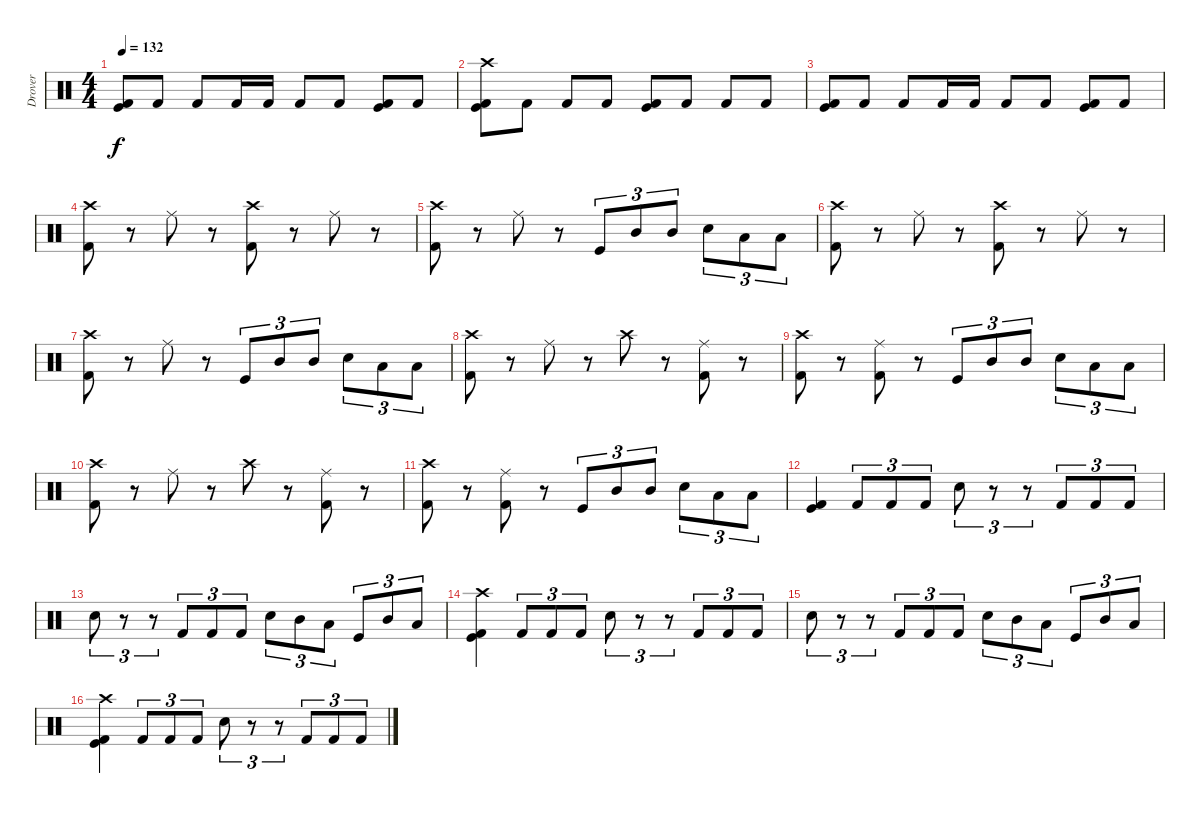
\track ("Drover" "Drover") {instrument percussion}
\staff {score}
\articulation defaults
\ts (4 4)
\tempo 132
\clef neutral
\ks c
("Kick (hit) 2" "Kick (hit)").8{dy f} "Kick (hit) 2".8 "Kick (hit) 2".8 "Kick (hit) 2".16 "Kick (hit) 2".16 "Kick (hit) 2".8 "Kick (hit) 2".8 ("Kick (hit)" "Kick (hit) 2").8 "Kick (hit) 2".8 |
("Crash high (hit)" "Kick (hit) 2" "Kick (hit)").8 "Kick (hit) 2".8 "Kick (hit) 2".8 "Kick (hit) 2".8 ("Kick (hit) 2" "Kick (hit)").8 "Kick (hit) 2".8 "Kick (hit) 2".8 "Kick (hit) 2".8 |
("Kick (hit) 2" "Kick (hit)").8 "Kick (hit) 2".8 "Kick (hit) 2".8 "Kick (hit) 2".16 "Kick (hit) 2".16 "Kick (hit) 2".8 "Kick (hit) 2".8 ("Kick (hit)" "Kick (hit) 2").8 "Kick (hit) 2".8 |
("Crash high (hit)" "Kick (hit) 2").8 r.8 "Ride (middle)".8 r.8 ("Crash high (hit)" "Kick (hit) 2").8 r.8 "Ride (middle)".8 r.8 |
("Crash high (hit)" "Kick (hit) 2").8 r.8 "Ride (middle)".8 r.8 "Kick (hit)".8{tu (3 2)} "Mid Tom (hit)".8{tu (3 2)} "Mid Tom (hit)".8{tu (3 2)} "Snare (hit) 2".8{tu (3 2)} "Low Floor Tom (hit)".8{tu (3 2)} "Low Floor Tom (hit)".8{tu (3 2)} |
("Crash high (hit)" "Kick (hit) 2").8 r.8 "Ride (middle)".8 r.8 ("Crash high (hit)" "Kick (hit) 2").8 r.8 "Ride (middle)".8 r.8 |
("Crash high (hit)" "Kick (hit) 2").8 r.8 "Ride (middle)".8 r.8 "Kick (hit)".8{tu (3 2)} "Mid Tom (hit)".8{tu (3 2)} "Mid Tom (hit)".8{tu (3 2)} "Snare (hit) 2".8{tu (3 2)} "Low Floor Tom (hit)".8{tu (3 2)} "Low Floor Tom (hit)".8{tu (3 2)} |
("Crash high (hit)" "Kick (hit) 2").8 r.8 "Ride (middle)".8 r.8 "Crash high (hit)".8 r.8 ("Ride (middle)" "Kick (hit) 2").8 r.8 |
("Crash high (hit)" "Kick (hit) 2").8 r.8 ("Ride (middle)" "Kick (hit) 2").8 r.8 "Kick (hit)".8{tu (3 2)} "Mid Tom (hit)".8{tu (3 2)} "Mid Tom (hit)".8{tu (3 2)} "Snare (hit) 2".8{tu (3 2)} "Low Floor Tom (hit)".8{tu (3 2)} "Low Floor Tom (hit)".8{tu (3 2)} |
("Crash high (hit)" "Kick (hit) 2").8 r.8 "Ride (middle)".8 r.8 "Crash high (hit)".8 r.8 ("Ride (middle)" "Kick (hit) 2").8 r.8 |
("Crash high (hit)" "Kick (hit) 2").8 r.8 ("Ride (middle)" "Kick (hit) 2").8 r.8 "Kick (hit)".8{tu (3 2)} "Mid Tom (hit)".8{tu (3 2)} "Mid Tom (hit)".8{tu (3 2)} "Snare (hit) 2".8{tu (3 2)} "Low Floor Tom (hit)".8{tu (3 2)} "Low Floor Tom (hit)".8{tu (3 2)} |
("Kick (hit)" "Kick (hit) 2").4 "Kick (hit) 2".8{tu (3 2)} "Kick (hit) 2".8{tu (3 2)} "Kick (hit) 2".8{tu (3 2)} "Electric Snare (hit)".8{tu (3 2)} r.8{tu (3 2)} r.8{tu (3 2)} "Kick (hit) 2".8{tu (3 2)} "Kick (hit) 2".8{tu (3 2)} "Kick (hit) 2".8{tu (3 2)} |
"Electric Snare (hit)".8{tu (3 2)} r.8{tu (3 2)} r.8{tu (3 2)} "Kick (hit) 2".8{tu (3 2)} "Kick (hit) 2".8{tu (3 2)} "Kick (hit) 2".8{tu (3 2)} "Snare (hit) 2".8{tu (3 2)} "Mid Tom (hit)".8{tu (3 2)} "Low Floor Tom (hit)".8{tu (3 2)} "Kick (hit)".8{tu (3 2)} "Mid Tom (hit)".8{tu (3 2)} "Low Tom (hit)".8{tu (3 2)} |
("Kick (hit)" "Crash high (hit)" "Kick (hit) 2").4 "Kick (hit) 2".8{tu (3 2)} "Kick (hit) 2".8{tu (3 2)} "Kick (hit) 2".8{tu (3 2)} "Electric Snare (hit)".8{tu (3 2)} r.8{tu (3 2)} r.8{tu (3 2)} "Kick (hit) 2".8{tu (3 2)} "Kick (hit) 2".8{tu (3 2)} "Kick (hit) 2".8{tu (3 2)} |
"Electric Snare (hit)".8{tu (3 2)} r.8{tu (3 2)} r.8{tu (3 2)} "Kick (hit) 2".8{tu (3 2)} "Kick (hit) 2".8{tu (3 2)} "Kick (hit) 2".8{tu (3 2)} "Snare (hit) 2".8{tu (3 2)} "Mid Tom (hit)".8{tu (3 2)} "Low Floor Tom (hit)".8{tu (3 2)} "Kick (hit)".8{tu (3 2)} "Mid Tom (hit)".8{tu (3 2)} "Low Tom (hit)".8{tu (3 2)} |
("Kick (hit)" "Crash high (hit)" "Kick (hit) 2").4 "Kick (hit) 2".8{tu (3 2)} "Kick (hit) 2".8{tu (3 2)} "Kick (hit) 2".8{tu (3 2)} "Electric Snare (hit)".8{tu (3 2)} r.8{tu (3 2)} r.8{tu (3 2)} "Kick (hit) 2".8{tu (3 2)} "Kick (hit) 2".8{tu (3 2)} "Kick (hit) 2".8{tu (3 2)}
